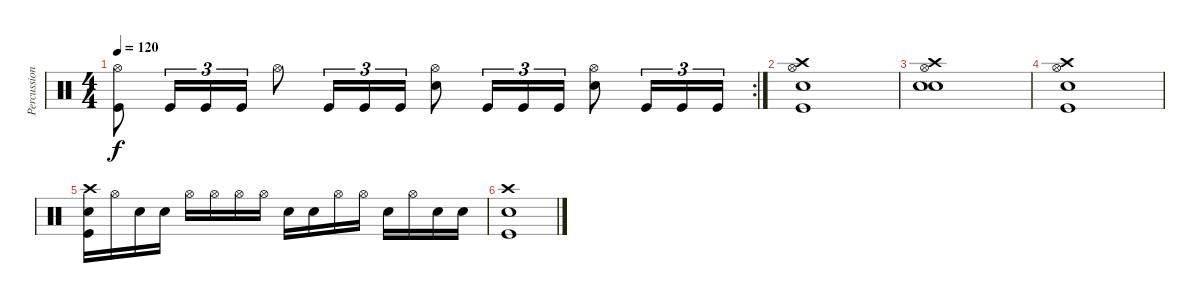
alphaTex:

\track ("Percussions" "Percussion") {instrument percussion}
\staff {score}
\articulation defaults
\rc 2
\ts (4 4)
\tempo 120
\clef neutral
\ks c
("Hi-Hat (open)" "Kick (hit)").8{dy f} "Kick (hit)".16{tu (3 2)} "Kick (hit)".16{tu (3 2)} "Kick (hit)".16{tu (3 2)} "Hi-Hat (open)".8 "Kick (hit)".16{tu (3 2)} "Kick (hit)".16{tu (3 2)} "Kick (hit)".16{tu (3 2)} ("Hi-Hat (open)" "Electric Snare (hit)").8 "Kick (hit)".16{tu (3 2)} "Kick (hit)".16{tu (3 2)} "Kick (hit)".16{tu (3 2)} ("Hi-Hat (open)" "Electric Snare (hit)").8 "Kick (hit)".16{tu (3 2)} "Kick (hit)".16{tu (3 2)} "Kick (hit)".16{tu (3 2)} |
("Crash high (hit)" "Hi-Hat (open)" "Electric Snare (hit)" "Kick (hit)").1 |
("Crash high (hit)" "Hi-Hat (open)" "Electric Snare (hit)" "Electric Snare (hit)").1 |
("Crash high (hit)" "Hi-Hat (open)" "Electric Snare (hit)" "Kick (hit)").1 |
("Crash high (hit)" "Electric Snare (hit)" "Kick (hit)").16 "Hi-Hat (open)".16 "Electric Snare (hit)".16 "Electric Snare (hit)".16 "Hi-Hat (open)".16 "Hi-Hat (open)".16 "Hi-Hat (open)".16 "Hi-Hat (open)".16 "Electric Snare (hit)".16 "Electric Snare (hit)".16 "Hi-Hat (open)".16 "Hi-Hat (open)".16 "Electric Snare (hit)".16 "Hi-Hat (open)".16 "Electric Snare (hit)".16 "Electric Snare (hit)".16 |
("Crash high (hit)" "Electric Snare (hit)" "Kick (hit)").1
